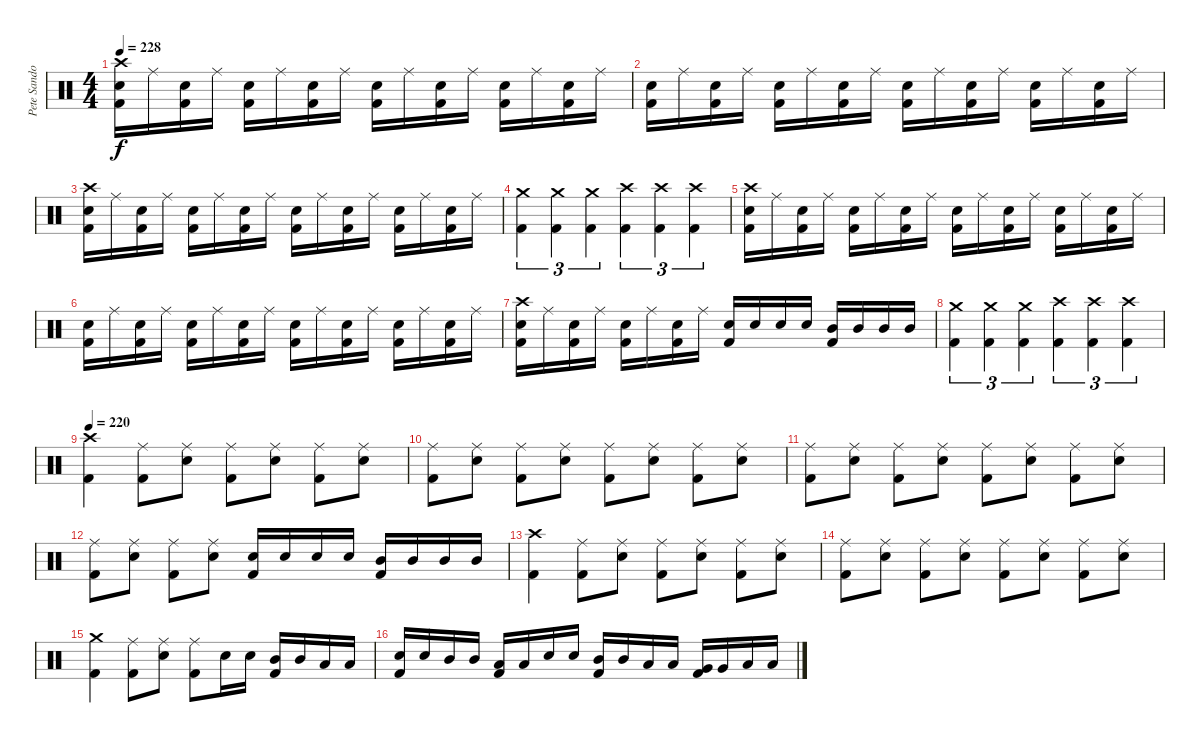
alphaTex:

\track ("Pete Sandoval" "Pete Sando") {instrument percussion}
\staff {score}
\articulation defaults
\ts (4 4)
\tempo 228
\clef neutral
\ks c
("Crash high (hit)" "Kick (hit) 2" "Electric Snare (hit)").16{dy f} "Ride (middle)".16 ("Kick (hit) 2" "Electric Snare (hit)").16 "Ride (middle)".16 ("Kick (hit) 2" "Electric Snare (hit)").16 "Ride (middle)".16 ("Kick (hit) 2" "Electric Snare (hit)").16 "Ride (middle)".16 ("Kick (hit) 2" "Electric Snare (hit)").16 "Ride (middle)".16 ("Kick (hit) 2" "Electric Snare (hit)").16 "Ride (middle)".16 ("Kick (hit) 2" "Electric Snare (hit)").16 "Ride (middle)".16 ("Kick (hit) 2" "Electric Snare (hit)").16 "Ride (middle)".16 |
("Kick (hit) 2" "Electric Snare (hit)").16 "Ride (middle)".16 ("Kick (hit) 2" "Electric Snare (hit)").16 "Ride (middle)".16 ("Kick (hit) 2" "Electric Snare (hit)").16 "Ride (middle)".16 ("Kick (hit) 2" "Electric Snare (hit)").16 "Ride (middle)".16 ("Kick (hit) 2" "Electric Snare (hit)").16 "Ride (middle)".16 ("Kick (hit) 2" "Electric Snare (hit)").16 "Ride (middle)".16 ("Kick (hit) 2" "Electric Snare (hit)").16 "Ride (middle)".16 ("Kick (hit) 2" "Electric Snare (hit)").16 "Ride (middle)".16 |
("Crash high (hit)" "Kick (hit) 2" "Electric Snare (hit)").16 "Ride (middle)".16 ("Kick (hit) 2" "Electric Snare (hit)").16 "Ride (middle)".16 ("Kick (hit) 2" "Electric Snare (hit)").16 "Ride (middle)".16 ("Kick (hit) 2" "Electric Snare (hit)").16 "Ride (middle)".16 ("Kick (hit) 2" "Electric Snare (hit)").16 "Ride (middle)".16 ("Kick (hit) 2" "Electric Snare (hit)").16 "Ride (middle)".16 ("Kick (hit) 2" "Electric Snare (hit)").16 "Ride (middle)".16 ("Kick (hit) 2" "Electric Snare (hit)").16 "Ride (middle)".16 |
("Crash medium (hit)" "Kick (hit) 2").4{tu (3 2)} ("Crash medium (hit)" "Kick (hit) 2").4{tu (3 2)} ("Crash medium (hit)" "Kick (hit) 2").4{tu (3 2)} ("Crash high (hit)" "Kick (hit) 2").4{tu (3 2)} ("Crash high (hit)" "Kick (hit) 2").4{tu (3 2)} ("Crash high (hit)" "Kick (hit) 2").4{tu (3 2)} |
("Crash high (hit)" "Kick (hit) 2" "Electric Snare (hit)").16 "Ride (middle)".16 ("Kick (hit) 2" "Electric Snare (hit)").16 "Ride (middle)".16 ("Kick (hit) 2" "Electric Snare (hit)").16 "Ride (middle)".16 ("Kick (hit) 2" "Electric Snare (hit)").16 "Ride (middle)".16 ("Kick (hit) 2" "Electric Snare (hit)").16 "Ride (middle)".16 ("Kick (hit) 2" "Electric Snare (hit)").16 "Ride (middle)".16 ("Kick (hit) 2" "Electric Snare (hit)").16 "Ride (middle)".16 ("Kick (hit) 2" "Electric Snare (hit)").16 "Ride (middle)".16 |
("Kick (hit) 2" "Electric Snare (hit)").16 "Ride (middle)".16 ("Kick (hit) 2" "Electric Snare (hit)").16 "Ride (middle)".16 ("Kick (hit) 2" "Electric Snare (hit)").16 "Ride (middle)".16 ("Kick (hit) 2" "Electric Snare (hit)").16 "Ride (middle)".16 ("Kick (hit) 2" "Electric Snare (hit)").16 "Ride (middle)".16 ("Kick (hit) 2" "Electric Snare (hit)").16 "Ride (middle)".16 ("Kick (hit) 2" "Electric Snare (hit)").16 "Ride (middle)".16 ("Kick (hit) 2" "Electric Snare (hit)").16 "Ride (middle)".16 |
("Crash high (hit)" "Kick (hit) 2" "Electric Snare (hit)").16 "Ride (middle)".16 ("Kick (hit) 2" "Electric Snare (hit)").16 "Ride (middle)".16 ("Kick (hit) 2" "Electric Snare (hit)").16 "Ride (middle)".16 ("Kick (hit) 2" "Electric Snare (hit)").16 "Ride (middle)".16 ("Kick (hit) 2" "Electric Snare (hit)").16 "Electric Snare (hit)".16 "Electric Snare (hit)".16 "Electric Snare (hit)".16 ("Kick (hit) 2" "Mid Tom (hit)").16 "Mid Tom (hit)".16 "Mid Tom (hit)".16 "Mid Tom (hit)".16 |
("Crash medium (hit)" "Kick (hit) 2").4{tu (3 2)} ("Crash medium (hit)" "Kick (hit) 2").4{tu (3 2)} ("Crash medium (hit)" "Kick (hit) 2").4{tu (3 2)} ("Crash high (hit)" "Kick (hit) 2").4{tu (3 2)} ("Crash high (hit)" "Kick (hit) 2").4{tu (3 2)} ("Crash high (hit)" "Kick (hit) 2").4{tu (3 2)} |
\tempo 220
("Crash high (hit)" "Kick (hit) 2").4 ("Kick (hit) 2" "Ride (middle)").8 ("Electric Snare (hit)" "Ride (middle)").8 ("Kick (hit) 2" "Ride (middle)").8 ("Electric Snare (hit)" "Ride (middle)").8 ("Kick (hit) 2" "Ride (middle)").8 ("Electric Snare (hit)" "Ride (middle)").8 |
("Kick (hit) 2" "Ride (middle)").8 ("Electric Snare (hit)" "Ride (middle)").8 ("Kick (hit) 2" "Ride (middle)").8 ("Electric Snare (hit)" "Ride (middle)").8 ("Kick (hit) 2" "Ride (middle)").8 ("Electric Snare (hit)" "Ride (middle)").8 ("Kick (hit) 2" "Ride (middle)").8 ("Electric Snare (hit)" "Ride (middle)").8 |
("Kick (hit) 2" "Ride (middle)").8 ("Electric Snare (hit)" "Ride (middle)").8 ("Kick (hit) 2" "Ride (middle)").8 ("Electric Snare (hit)" "Ride (middle)").8 ("Kick (hit) 2" "Ride (middle)").8 ("Electric Snare (hit)" "Ride (middle)").8 ("Kick (hit) 2" "Ride (middle)").8 ("Electric Snare (hit)" "Ride (middle)").8 |
("Kick (hit) 2" "Ride (middle)").8 ("Electric Snare (hit)" "Ride (middle)").8 ("Kick (hit) 2" "Ride (middle)").8 ("Electric Snare (hit)" "Ride (middle)").8 ("Kick (hit) 2" "Electric Snare (hit)").16 "Electric Snare (hit)".16 "Electric Snare (hit)".16 "Electric Snare (hit)".16 ("Kick (hit) 2" "Mid Tom (hit)").16 "Mid Tom (hit)".16 "Mid Tom (hit)".16 "Mid Tom (hit)".16 |
("Crash high (hit)" "Kick (hit) 2").4 ("Kick (hit) 2" "Ride (middle)").8 ("Electric Snare (hit)" "Ride (middle)").8 ("Kick (hit) 2" "Ride (middle)").8 ("Electric Snare (hit)" "Ride (middle)").8 ("Kick (hit) 2" "Ride (middle)").8 ("Electric Snare (hit)" "Ride (middle)").8 |
("Kick (hit) 2" "Ride (middle)").8 ("Electric Snare (hit)" "Ride (middle)").8 ("Kick (hit) 2" "Ride (middle)").8 ("Electric Snare (hit)" "Ride (middle)").8 ("Kick (hit) 2" "Ride (middle)").8 ("Electric Snare (hit)" "Ride (middle)").8 ("Kick (hit) 2" "Ride (middle)").8 ("Electric Snare (hit)" "Ride (middle)").8 |
("Crash medium (hit)" "Kick (hit) 2").4 ("Kick (hit) 2" "Ride (middle)").8 ("Electric Snare (hit)" "Ride (middle)").8 ("Kick (hit) 2" "Ride (middle)").8 "Electric Snare (hit)".16 "Electric Snare (hit)".16 ("Kick (hit) 2" "Mid Tom (hit)").16 "Mid Tom (hit)".16 "Low Tom (hit)".16 "Low Tom (hit)".16 |
("Kick (hit) 2" "Electric Snare (hit)").16 "Electric Snare (hit)".16 "Mid Tom (hit)".16 "Mid Tom (hit)".16 ("Kick (hit) 2" "Low Tom (hit)").16 "Low Tom (hit)".16 "Electric Snare (hit)".16 "Electric Snare (hit)".16 ("Kick (hit) 2" "Mid Tom (hit)").16 "Mid Tom (hit)".16 "Low Tom (hit)".16 "Low Tom (hit)".16 ("Kick (hit) 2" "Very Low Tom (hit)").16 "Very Low Tom (hit)".16 "Low Floor Tom (hit)".16 "Low Floor Tom (hit)".16
